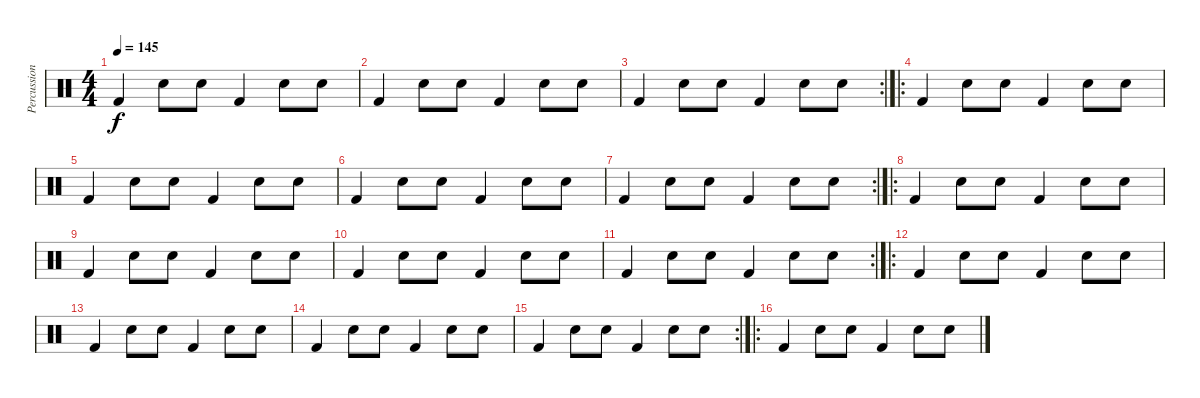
\track ("Percussions" "Percussion") {instrument percussion}
\staff {score}
\articulation defaults
\ts (4 4)
\tempo 145
\clef neutral
\ks c "Kick (hit) 2".4{dy f} "Snare (hit) 2".8 "Snare (hit) 2".8 "Kick (hit) 2".4 "Snare (hit) 2".8 "Snare (hit) 2".8
|
"Kick (hit) 2".4 "Snare (hit) 2".8 "Snare (hit) 2".8 "Kick (hit) 2".4 "Snare (hit) 2".8 "Snare (hit) 2".8 |
\rc 2 "Kick (hit) 2".4 "Snare (hit) 2".8 "Snare (hit) 2".8 "Kick (hit) 2".4 "Snare (hit) 2".8 "Snare (hit) 2".8
|
\ro "Kick (hit) 2".4 "Snare (hit) 2".8 "Snare (hit) 2".8 "Kick (hit) 2".4 "Snare (hit) 2".8 "Snare (hit) 2".8
|
"Kick (hit) 2".4 "Snare (hit) 2".8 "Snare (hit) 2".8 "Kick (hit) 2".4 "Snare (hit) 2".8 "Snare (hit) 2".8 |
"Kick (hit) 2".4 "Snare (hit) 2".8 "Snare (hit) 2".8 "Kick (hit) 2".4 "Snare (hit) 2".8 "Snare (hit) 2".8 |
\rc 2 "Kick (hit) 2".4 "Snare (hit) 2".8 "Snare (hit) 2".8 "Kick (hit) 2".4 "Snare (hit) 2".8 "Snare (hit) 2".8
|
\ro "Kick (hit) 2".4 "Snare (hit) 2".8 "Snare (hit) 2".8 "Kick (hit) 2".4 "Snare (hit) 2".8 "Snare (hit) 2".8
|
"Kick (hit) 2".4 "Snare (hit) 2".8 "Snare (hit) 2".8 "Kick (hit) 2".4 "Snare (hit) 2".8 "Snare (hit) 2".8 |
"Kick (hit) 2".4 "Snare (hit) 2".8 "Snare (hit) 2".8 "Kick (hit) 2".4 "Snare (hit) 2".8 "Snare (hit) 2".8 |
\rc 2 "Kick (hit) 2".4 "Snare (hit) 2".8 "Snare (hit) 2".8 "Kick (hit) 2".4 "Snare (hit) 2".8 "Snare (hit) 2".8
|
\ro "Kick (hit) 2".4 "Snare (hit) 2".8 "Snare (hit) 2".8 "Kick (hit) 2".4 "Snare (hit) 2".8 "Snare (hit) 2".8
|
"Kick (hit) 2".4 "Snare (hit) 2".8 "Snare (hit) 2".8 "Kick (hit) 2".4 "Snare (hit) 2".8 "Snare (hit) 2".8 |
"Kick (hit) 2".4 "Snare (hit) 2".8 "Snare (hit) 2".8 "Kick (hit) 2".4 "Snare (hit) 2".8 "Snare (hit) 2".8 |
\rc 2 "Kick (hit) 2".4 "Snare (hit) 2".8 "Snare (hit) 2".8 "Kick (hit) 2".4 "Snare (hit) 2".8 "Snare (hit) 2".8
|
\ro "Kick (hit) 2".4 "Snare (hit) 2".8 "Snare (hit) 2".8 "Kick (hit) 2".4 "Snare (hit) 2".8 "Snare (hit) 2".8
